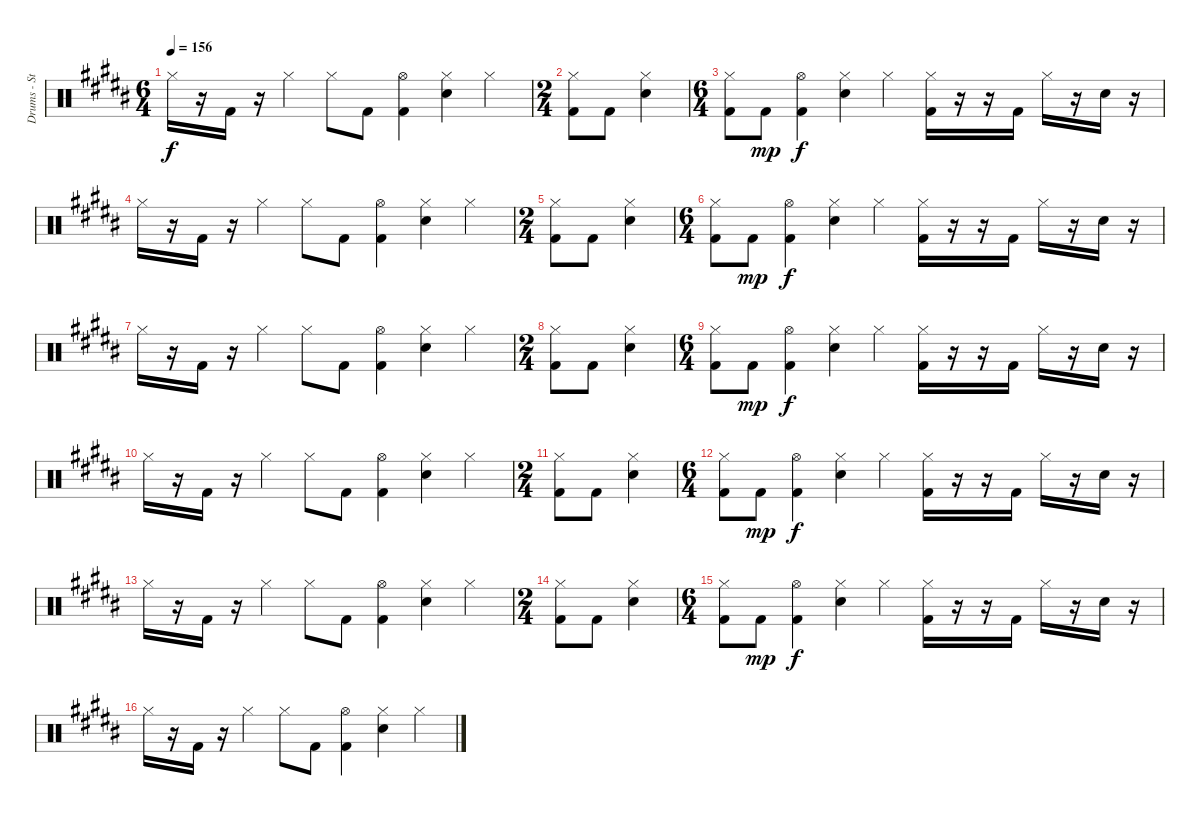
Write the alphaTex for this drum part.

\track ("Drums - Steve Judd" "Drums - St") {instrument percussion}
\staff {score}
\articulation defaults
\ts (6 4)
\tempo 156
\clef neutral
\ks b "Hi-Hat (closed)".16{dy f}
r.16 "Kick (hit) 2".16 r.16 "Hi-Hat (closed)".4 "Hi-Hat (closed)".8 "Kick (hit) 2".8 ("Hi-Hat (open)" "Kick (hit) 2").4 ("Electric Snare (hit)" "Hi-Hat (closed)").4 "Hi-Hat (closed)".4 |
\ts (2 4)
("Hi-Hat (closed)" "Kick (hit) 2").8 "Kick (hit) 2".8 ("Electric Snare (hit)" "Hi-Hat (closed)").4 |
\ts (6 4)
("Hi-Hat (closed)" "Kick (hit) 2").8 "Kick (hit) 2".8{dy mp} ("Hi-Hat (open)" "Kick (hit) 2").4{dy f} ("Electric Snare (hit)" "Hi-Hat (closed)").4 "Hi-Hat (closed)".4 ("Hi-Hat (closed)" "Kick (hit) 2").16 r.16 r.16 "Kick (hit) 2".16 "Hi-Hat (closed)".16 r.16 "Electric Snare (hit)".16 r.16 |
"Hi-Hat (closed)".16 r.16 "Kick (hit) 2".16 r.16 "Hi-Hat (closed)".4 "Hi-Hat (closed)".8 "Kick (hit) 2".8 ("Hi-Hat (open)" "Kick (hit) 2").4 ("Electric Snare (hit)" "Hi-Hat (closed)").4 "Hi-Hat (closed)".4 |
\ts (2 4)
("Hi-Hat (closed)" "Kick (hit) 2").8 "Kick (hit) 2".8 ("Electric Snare (hit)" "Hi-Hat (closed)").4 |
\ts (6 4)
("Hi-Hat (closed)" "Kick (hit) 2").8 "Kick (hit) 2".8{dy mp} ("Hi-Hat (open)" "Kick (hit) 2").4{dy f} ("Electric Snare (hit)" "Hi-Hat (closed)").4 "Hi-Hat (closed)".4 ("Hi-Hat (closed)" "Kick (hit) 2").16 r.16 r.16 "Kick (hit) 2".16 "Hi-Hat (closed)".16 r.16 "Electric Snare (hit)".16 r.16 |
"Hi-Hat (closed)".16 r.16 "Kick (hit) 2".16 r.16 "Hi-Hat (closed)".4 "Hi-Hat (closed)".8 "Kick (hit) 2".8 ("Hi-Hat (open)" "Kick (hit) 2").4 ("Electric Snare (hit)" "Hi-Hat (closed)").4 "Hi-Hat (closed)".4 |
\ts (2 4)
("Hi-Hat (closed)" "Kick (hit) 2").8 "Kick (hit) 2".8 ("Electric Snare (hit)" "Hi-Hat (closed)").4 |
\ts (6 4)
("Hi-Hat (closed)" "Kick (hit) 2").8 "Kick (hit) 2".8{dy mp} ("Hi-Hat (open)" "Kick (hit) 2").4{dy f} ("Electric Snare (hit)" "Hi-Hat (closed)").4 "Hi-Hat (closed)".4 ("Hi-Hat (closed)" "Kick (hit) 2").16 r.16 r.16 "Kick (hit) 2".16 "Hi-Hat (closed)".16 r.16 "Electric Snare (hit)".16 r.16 |
"Hi-Hat (closed)".16 r.16 "Kick (hit) 2".16 r.16 "Hi-Hat (closed)".4 "Hi-Hat (closed)".8 "Kick (hit) 2".8 ("Hi-Hat (open)" "Kick (hit) 2").4 ("Electric Snare (hit)" "Hi-Hat (closed)").4 "Hi-Hat (closed)".4 |
\ts (2 4)
("Hi-Hat (closed)" "Kick (hit) 2").8 "Kick (hit) 2".8 ("Electric Snare (hit)" "Hi-Hat (closed)").4 |
\ts (6 4)
("Hi-Hat (closed)" "Kick (hit) 2").8 "Kick (hit) 2".8{dy mp} ("Hi-Hat (open)" "Kick (hit) 2").4{dy f} ("Electric Snare (hit)" "Hi-Hat (closed)").4 "Hi-Hat (closed)".4 ("Hi-Hat (closed)" "Kick (hit) 2").16 r.16 r.16 "Kick (hit) 2".16 "Hi-Hat (closed)".16 r.16 "Electric Snare (hit)".16 r.16 |
"Hi-Hat (closed)".16 r.16 "Kick (hit) 2".16 r.16 "Hi-Hat (closed)".4 "Hi-Hat (closed)".8 "Kick (hit) 2".8 ("Hi-Hat (open)" "Kick (hit) 2").4 ("Electric Snare (hit)" "Hi-Hat (closed)").4 "Hi-Hat (closed)".4 |
\ts (2 4)
("Hi-Hat (closed)" "Kick (hit) 2").8 "Kick (hit) 2".8 ("Electric Snare (hit)" "Hi-Hat (closed)").4 |
\ts (6 4)
("Hi-Hat (closed)" "Kick (hit) 2").8 "Kick (hit) 2".8{dy mp} ("Hi-Hat (open)" "Kick (hit) 2").4{dy f} ("Electric Snare (hit)" "Hi-Hat (closed)").4 "Hi-Hat (closed)".4 ("Hi-Hat (closed)" "Kick (hit) 2").16 r.16 r.16 "Kick (hit) 2".16 "Hi-Hat (closed)".16 r.16 "Electric Snare (hit)".16 r.16 |
"Hi-Hat (closed)".16 r.16 "Kick (hit) 2".16 r.16 "Hi-Hat (closed)".4 "Hi-Hat (closed)".8 "Kick (hit) 2".8 ("Hi-Hat (open)" "Kick (hit) 2").4 ("Electric Snare (hit)" "Hi-Hat (closed)").4 "Hi-Hat (closed)".4
